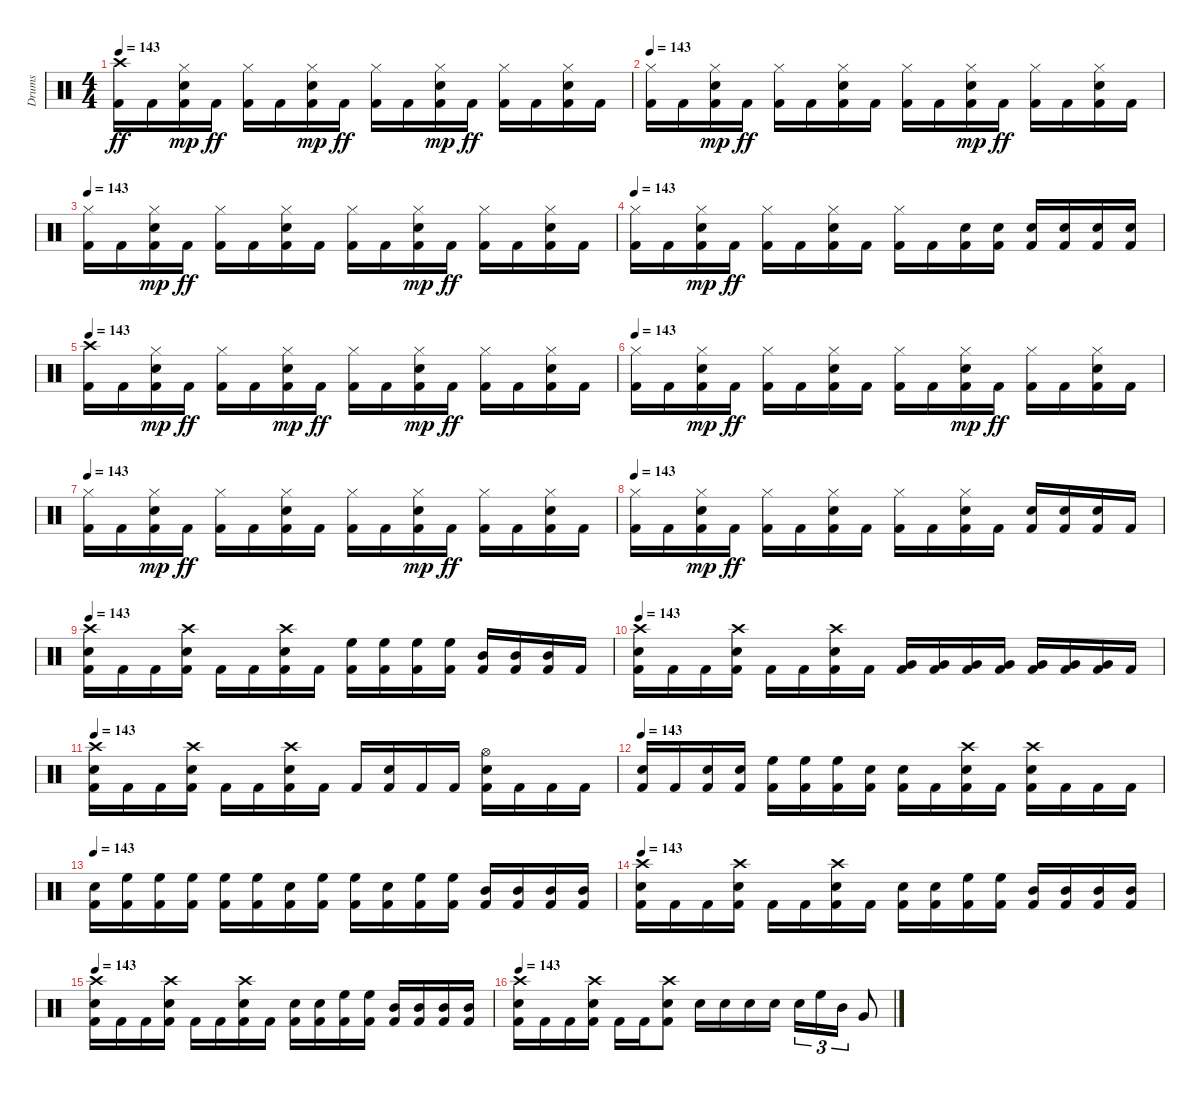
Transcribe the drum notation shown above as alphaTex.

\track ("Drums" "Drums") {instrument percussion}
\staff {score}
\articulation defaults
\ts (4 4)
\tempo 143
\clef neutral
\ks c
("Crash high (hit)" "Kick (hit) 2").16{dy ff} "Kick (hit) 2".16 ("Kick (hit) 2" "Snare (hit) 2" "Hi-Hat (closed)").16{dy mp} "Kick (hit) 2".16{dy ff} ("Kick (hit) 2" "Hi-Hat (closed)").16 "Kick (hit) 2".16 ("Kick (hit) 2" "Snare (hit) 2" "Hi-Hat (closed)").16{dy mp} "Kick (hit) 2".16{dy ff} ("Hi-Hat (closed)" "Kick (hit) 2").16 "Kick (hit) 2".16 ("Kick (hit) 2" "Snare (hit) 2" "Hi-Hat (closed)").16{dy mp} "Kick (hit) 2".16{dy ff} ("Kick (hit) 2" "Hi-Hat (closed)").16 "Kick (hit) 2".16 ("Hi-Hat (closed)" "Snare (hit) 2" "Kick (hit) 2").16 "Kick (hit) 2".16 |
\tempo 143
("Hi-Hat (closed)" "Kick (hit) 2").16 "Kick (hit) 2".16 ("Kick (hit) 2" "Snare (hit) 2" "Hi-Hat (closed)").16{dy mp} "Kick (hit) 2".16{dy ff} ("Kick (hit) 2" "Hi-Hat (closed)").16 "Kick (hit) 2".16 ("Hi-Hat (closed)" "Snare (hit) 2" "Kick (hit) 2").16 "Kick (hit) 2".16 ("Hi-Hat (closed)" "Kick (hit) 2").16 "Kick (hit) 2".16 ("Kick (hit) 2" "Snare (hit) 2" "Hi-Hat (closed)").16{dy mp} "Kick (hit) 2".16{dy ff} ("Kick (hit) 2" "Hi-Hat (closed)").16 "Kick (hit) 2".16 ("Hi-Hat (closed)" "Snare (hit) 2" "Kick (hit) 2").16 "Kick (hit) 2".16 |
\tempo 143
("Hi-Hat (closed)" "Kick (hit) 2").16 "Kick (hit) 2".16 ("Kick (hit) 2" "Snare (hit) 2" "Hi-Hat (closed)").16{dy mp} "Kick (hit) 2".16{dy ff} ("Kick (hit) 2" "Hi-Hat (closed)").16 "Kick (hit) 2".16 ("Hi-Hat (closed)" "Snare (hit) 2" "Kick (hit) 2").16 "Kick (hit) 2".16 ("Hi-Hat (closed)" "Kick (hit) 2").16 "Kick (hit) 2".16 ("Kick (hit) 2" "Snare (hit) 2" "Hi-Hat (closed)").16{dy mp} "Kick (hit) 2".16{dy ff} ("Kick (hit) 2" "Hi-Hat (closed)").16 "Kick (hit) 2".16 ("Hi-Hat (closed)" "Snare (hit) 2" "Kick (hit) 2").16 "Kick (hit) 2".16 |
\tempo 143
("Hi-Hat (closed)" "Kick (hit) 2").16 "Kick (hit) 2".16 ("Kick (hit) 2" "Snare (hit) 2" "Hi-Hat (closed)").16{dy mp} "Kick (hit) 2".16{dy ff} ("Kick (hit) 2" "Hi-Hat (closed)").16 "Kick (hit) 2".16 ("Hi-Hat (closed)" "Snare (hit) 2" "Kick (hit) 2").16 "Kick (hit) 2".16 ("Hi-Hat (closed)" "Kick (hit) 2").16 "Kick (hit) 2".16 ("Snare (hit) 2" "Kick (hit) 2").16 ("Kick (hit) 2" "Snare (hit) 2").16 ("Snare (hit) 2" "Kick (hit) 2").16 ("Snare (hit) 2" "Kick (hit) 2").16 ("Snare (hit) 2" "Kick (hit) 2").16 ("Snare (hit) 2" "Kick (hit) 2").16 |
\tempo 143
("Crash high (hit)" "Kick (hit) 2").16 "Kick (hit) 2".16 ("Kick (hit) 2" "Snare (hit) 2" "Hi-Hat (closed)").16{dy mp} "Kick (hit) 2".16{dy ff} ("Kick (hit) 2" "Hi-Hat (closed)").16 "Kick (hit) 2".16 ("Kick (hit) 2" "Snare (hit) 2" "Hi-Hat (closed)").16{dy mp} "Kick (hit) 2".16{dy ff} ("Hi-Hat (closed)" "Kick (hit) 2").16 "Kick (hit) 2".16 ("Kick (hit) 2" "Snare (hit) 2" "Hi-Hat (closed)").16{dy mp} "Kick (hit) 2".16{dy ff} ("Kick (hit) 2" "Hi-Hat (closed)").16 "Kick (hit) 2".16 ("Hi-Hat (closed)" "Snare (hit) 2" "Kick (hit) 2").16 "Kick (hit) 2".16 |
\tempo 143
("Hi-Hat (closed)" "Kick (hit) 2").16 "Kick (hit) 2".16 ("Kick (hit) 2" "Snare (hit) 2" "Hi-Hat (closed)").16{dy mp} "Kick (hit) 2".16{dy ff} ("Kick (hit) 2" "Hi-Hat (closed)").16 "Kick (hit) 2".16 ("Hi-Hat (closed)" "Snare (hit) 2" "Kick (hit) 2").16 "Kick (hit) 2".16 ("Hi-Hat (closed)" "Kick (hit) 2").16 "Kick (hit) 2".16 ("Kick (hit) 2" "Snare (hit) 2" "Hi-Hat (closed)").16{dy mp} "Kick (hit) 2".16{dy ff} ("Kick (hit) 2" "Hi-Hat (closed)").16 "Kick (hit) 2".16 ("Hi-Hat (closed)" "Snare (hit) 2" "Kick (hit) 2").16 "Kick (hit) 2".16 |
\tempo 143
("Hi-Hat (closed)" "Kick (hit) 2").16 "Kick (hit) 2".16 ("Kick (hit) 2" "Snare (hit) 2" "Hi-Hat (closed)").16{dy mp} "Kick (hit) 2".16{dy ff} ("Kick (hit) 2" "Hi-Hat (closed)").16 "Kick (hit) 2".16 ("Hi-Hat (closed)" "Snare (hit) 2" "Kick (hit) 2").16 "Kick (hit) 2".16 ("Hi-Hat (closed)" "Kick (hit) 2").16 "Kick (hit) 2".16 ("Kick (hit) 2" "Snare (hit) 2" "Hi-Hat (closed)").16{dy mp} "Kick (hit) 2".16{dy ff} ("Kick (hit) 2" "Hi-Hat (closed)").16 "Kick (hit) 2".16 ("Hi-Hat (closed)" "Snare (hit) 2" "Kick (hit) 2").16 "Kick (hit) 2".16 |
\tempo 143
("Hi-Hat (closed)" "Kick (hit) 2").16 "Kick (hit) 2".16 ("Kick (hit) 2" "Snare (hit) 2" "Hi-Hat (closed)").16{dy mp} "Kick (hit) 2".16{dy ff} ("Kick (hit) 2" "Hi-Hat (closed)").16 "Kick (hit) 2".16 ("Hi-Hat (closed)" "Snare (hit) 2" "Kick (hit) 2").16 "Kick (hit) 2".16 ("Kick (hit) 2" "Hi-Hat (closed)").16 "Kick (hit) 2".16 ("Hi-Hat (closed)" "Snare (hit) 2" "Kick (hit) 2").16 "Kick (hit) 2".16 ("Snare (hit) 2" "Kick (hit) 2").16 ("Snare (hit) 2" "Kick (hit) 2").16 ("Snare (hit) 2" "Kick (hit) 2").16 "Kick (hit) 2".16 |
\tempo 143
("Kick (hit) 2" "Snare (hit) 2" "Crash high (hit)").16 "Kick (hit) 2".16 "Kick (hit) 2".16 ("Kick (hit) 2" "Crash high (hit)" "Snare (hit) 2").16 "Kick (hit) 2".16 "Kick (hit) 2".16 ("Kick (hit) 2" "Snare (hit) 2" "Crash high (hit)").16 "Kick (hit) 2".16 ("High Floor Tom (hit)" "Kick (hit) 2").16 ("High Floor Tom (hit)" "Kick (hit) 2").16 ("High Floor Tom (hit)" "Kick (hit) 2").16 ("Kick (hit) 2" "High Floor Tom (hit)").16 ("Mid Tom (hit)" "Kick (hit) 2").16 ("Mid Tom (hit)" "Kick (hit) 2").16 ("Mid Tom (hit)" "Kick (hit) 2").16 "Kick (hit) 2".16 |
\tempo 143
("Kick (hit) 2" "Snare (hit) 2" "Crash high (hit)").16 "Kick (hit) 2".16 "Kick (hit) 2".16 ("Kick (hit) 2" "Crash high (hit)" "Snare (hit) 2").16 "Kick (hit) 2".16 "Kick (hit) 2".16 ("Kick (hit) 2" "Snare (hit) 2" "Crash high (hit)").16 "Kick (hit) 2".16 ("Very Low Tom (hit)" "Kick (hit) 2").16 ("Very Low Tom (hit)" "Kick (hit) 2").16 ("Very Low Tom (hit)" "Kick (hit) 2").16 ("Very Low Tom (hit)" "Kick (hit) 2").16 ("Very Low Tom (hit)" "Kick (hit) 2").16 ("Very Low Tom (hit)" "Kick (hit) 2").16 ("Very Low Tom (hit)" "Kick (hit) 2").16 "Kick (hit) 2".16 |
\tempo 143
("Kick (hit) 2" "Snare (hit) 2" "Crash high (hit)").16 "Kick (hit) 2".16 "Kick (hit) 2".16 ("Kick (hit) 2" "Crash high (hit)" "Snare (hit) 2").16 "Kick (hit) 2".16 "Kick (hit) 2".16 ("Kick (hit) 2" "Snare (hit) 2" "Crash high (hit)").16 "Kick (hit) 2".16 "Kick (hit) 2".16 ("Snare (hit) 2" "Kick (hit) 2").16 "Kick (hit) 2".16 "Kick (hit) 2".16 ("Kick (hit) 2" "Hi-Hat (open)" "Snare (hit) 2").16 "Kick (hit) 2".16 "Kick (hit) 2".16 "Kick (hit) 2".16 |
\tempo 143
("Snare (hit) 2" "Kick (hit) 2").16 "Kick (hit) 2".16 ("Snare (hit) 2" "Kick (hit) 2").16 ("Snare (hit) 2" "Kick (hit) 2").16 ("High Floor Tom (hit)" "Kick (hit) 2").16 ("High Floor Tom (hit)" "Kick (hit) 2").16 ("High Floor Tom (hit)" "Kick (hit) 2").16 ("Snare (hit) 2" "Kick (hit) 2").16 ("Snare (hit) 2" "Kick (hit) 2").16 "Kick (hit) 2".16 ("Kick (hit) 2" "Crash high (hit)" "Snare (hit) 2").16 "Kick (hit) 2".16 ("Kick (hit) 2" "Snare (hit) 2" "Crash high (hit)").16 "Kick (hit) 2".16 "Kick (hit) 2".16 "Kick (hit) 2".16 |
\tempo 143
("Snare (hit) 2" "Kick (hit) 2").16 ("High Floor Tom (hit)" "Kick (hit) 2").16 ("High Floor Tom (hit)" "Kick (hit) 2").16 ("High Floor Tom (hit)" "Kick (hit) 2").16 ("High Floor Tom (hit)" "Kick (hit) 2").16 ("High Floor Tom (hit)" "Kick (hit) 2").16 ("Snare (hit) 2" "Kick (hit) 2").16 ("High Floor Tom (hit)" "Kick (hit) 2").16 ("High Floor Tom (hit)" "Kick (hit) 2").16 ("Snare (hit) 2" "Kick (hit) 2").16 ("High Floor Tom (hit)" "Kick (hit) 2").16 ("High Floor Tom (hit)" "Kick (hit) 2").16 ("Mid Tom (hit)" "Kick (hit) 2").16 ("Mid Tom (hit)" "Kick (hit) 2").16 ("Mid Tom (hit)" "Kick (hit) 2").16 ("Mid Tom (hit)" "Kick (hit) 2").16 |
\tempo 143
("Kick (hit) 2" "Snare (hit) 2" "Crash high (hit)").16 "Kick (hit) 2".16 "Kick (hit) 2".16 ("Kick (hit) 2" "Crash high (hit)" "Snare (hit) 2").16 "Kick (hit) 2".16 "Kick (hit) 2".16 ("Kick (hit) 2" "Snare (hit) 2" "Crash high (hit)").16 "Kick (hit) 2".16 ("Snare (hit) 2" "Kick (hit) 2").16 ("Snare (hit) 2" "Kick (hit) 2").16 ("High Floor Tom (hit)" "Kick (hit) 2").16 ("High Floor Tom (hit)" "Kick (hit) 2").16 ("Mid Tom (hit)" "Kick (hit) 2").16 ("Mid Tom (hit)" "Kick (hit) 2").16 ("Mid Tom (hit)" "Kick (hit) 2").16 ("Mid Tom (hit)" "Kick (hit) 2").16 |
\tempo 143
("Kick (hit) 2" "Snare (hit) 2" "Crash high (hit)").16 "Kick (hit) 2".16 "Kick (hit) 2".16 ("Kick (hit) 2" "Crash high (hit)" "Snare (hit) 2").16 "Kick (hit) 2".16 "Kick (hit) 2".16 ("Kick (hit) 2" "Snare (hit) 2" "Crash high (hit)").16 "Kick (hit) 2".16 ("Snare (hit) 2" "Kick (hit) 2").16 ("Snare (hit) 2" "Kick (hit) 2").16 ("High Floor Tom (hit)" "Kick (hit) 2").16 ("High Floor Tom (hit)" "Kick (hit) 2").16 ("Mid Tom (hit)" "Kick (hit) 2").16 ("Mid Tom (hit)" "Kick (hit) 2").16 ("Mid Tom (hit)" "Kick (hit) 2").16 ("Mid Tom (hit)" "Kick (hit) 2").16 |
\tempo 143
("Kick (hit) 2" "Snare (hit) 2" "Crash high (hit)").16 "Kick (hit) 2".16 "Kick (hit) 2".16 ("Kick (hit) 2" "Crash high (hit)" "Snare (hit) 2").16 "Kick (hit) 2".16 "Kick (hit) 2".16 ("Crash high (hit)" "Kick (hit) 2" "Snare (hit) 2").8 "Snare (hit) 2".16 "Snare (hit) 2".16 "Snare (hit) 2".16 "Snare (hit) 2".16 "Snare (hit) 2".16{tu (3 2)} "High Floor Tom (hit)".16{tu (3 2)} "Mid Tom (hit)".16{tu (3 2)} "Very Low Tom (hit)".8
